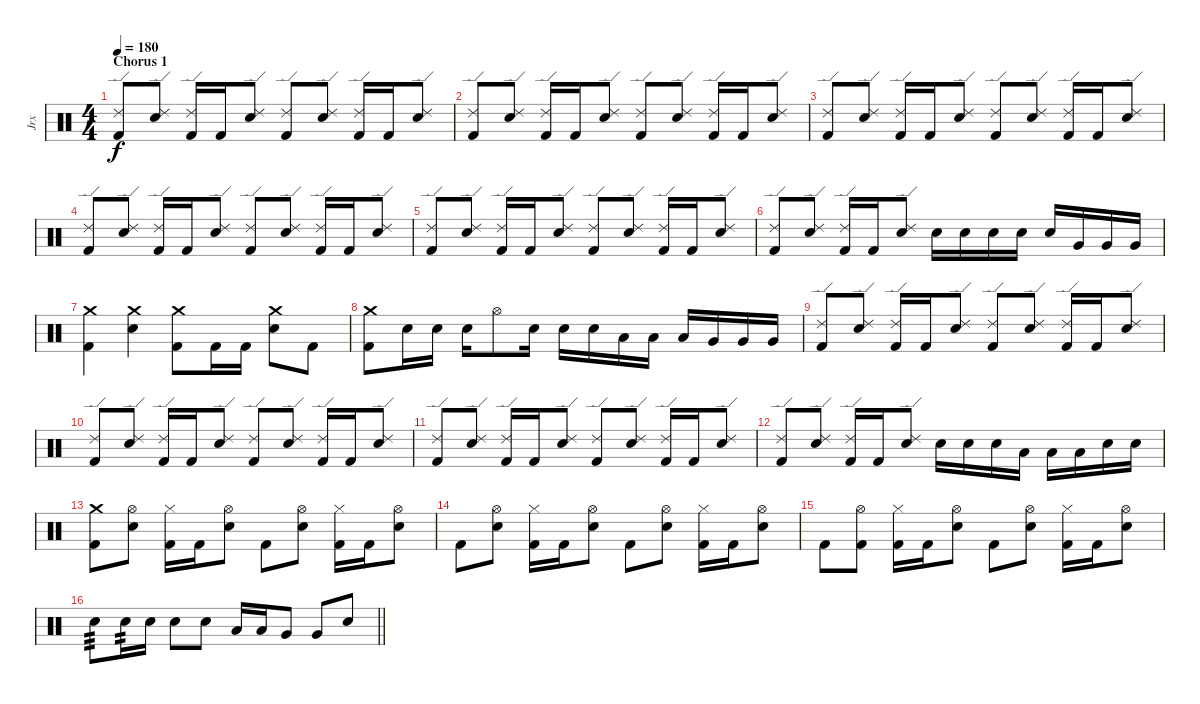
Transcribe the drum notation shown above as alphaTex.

\track ("Jrx" "Jrx") {instrument percussion}
\staff {score}
\articulation defaults
\ts (4 4)
\section ("" "Chorus 1")
\tempo 180
\clef neutral
\ks c
("Kick (hit) 2" "Ride (edge) 2").8{dy f} ("Electric Snare (hit)" "Ride (edge) 2").8 ("Kick (hit) 2" "Ride (edge) 2").16 "Kick (hit) 2".16 ("Electric Snare (hit)" "Ride (edge) 2").8 ("Kick (hit) 2" "Ride (edge) 2").8 ("Electric Snare (hit)" "Ride (edge) 2").8 ("Kick (hit) 2" "Ride (edge) 2").16 "Kick (hit) 2".16 ("Electric Snare (hit)" "Ride (edge) 2").8 |
("Kick (hit) 2" "Ride (edge) 2").8 ("Electric Snare (hit)" "Ride (edge) 2").8 ("Kick (hit) 2" "Ride (edge) 2").16 "Kick (hit) 2".16 ("Electric Snare (hit)" "Ride (edge) 2").8 ("Kick (hit) 2" "Ride (edge) 2").8 ("Electric Snare (hit)" "Ride (edge) 2").8 ("Kick (hit) 2" "Ride (edge) 2").16 "Kick (hit) 2".16 ("Electric Snare (hit)" "Ride (edge) 2").8 |
("Kick (hit) 2" "Ride (edge) 2").8 ("Electric Snare (hit)" "Ride (edge) 2").8 ("Kick (hit) 2" "Ride (edge) 2").16 "Kick (hit) 2".16 ("Electric Snare (hit)" "Ride (edge) 2").8 ("Kick (hit) 2" "Ride (edge) 2").8 ("Electric Snare (hit)" "Ride (edge) 2").8 ("Kick (hit) 2" "Ride (edge) 2").16 "Kick (hit) 2".16 ("Electric Snare (hit)" "Ride (edge) 2").8 |
("Kick (hit) 2" "Ride (edge) 2").8 ("Electric Snare (hit)" "Ride (edge) 2").8 ("Kick (hit) 2" "Ride (edge) 2").16 "Kick (hit) 2".16 ("Electric Snare (hit)" "Ride (edge) 2").8 ("Kick (hit) 2" "Ride (edge) 2").8 ("Electric Snare (hit)" "Ride (edge) 2").8 ("Kick (hit) 2" "Ride (edge) 2").16 "Kick (hit) 2".16 ("Electric Snare (hit)" "Ride (edge) 2").8 |
("Kick (hit) 2" "Ride (edge) 2").8 ("Electric Snare (hit)" "Ride (edge) 2").8 ("Kick (hit) 2" "Ride (edge) 2").16 "Kick (hit) 2".16 ("Electric Snare (hit)" "Ride (edge) 2").8 ("Kick (hit) 2" "Ride (edge) 2").8 ("Electric Snare (hit)" "Ride (edge) 2").8 ("Kick (hit) 2" "Ride (edge) 2").16 "Kick (hit) 2".16 ("Electric Snare (hit)" "Ride (edge) 2").8 |
("Kick (hit) 2" "Ride (edge) 2").8 ("Electric Snare (hit)" "Ride (edge) 2").8 ("Kick (hit) 2" "Ride (edge) 2").16 "Kick (hit) 2".16 ("Electric Snare (hit)" "Ride (edge) 2").8 "Electric Snare (hit)".16 "Electric Snare (hit)".16 "Electric Snare (hit)".16 "Electric Snare (hit)".16 "Electric Snare (hit)".16 "Very Low Tom (hit)".16 "Very Low Tom (hit)".16 "Very Low Tom (hit)".16 |
("Kick (hit) 2" "Crash medium (hit)").4 ("Electric Snare (hit)" "Crash medium (hit)").4 ("Kick (hit) 2" "Crash medium (hit)").8 "Kick (hit) 2".16 "Kick (hit) 2".16 ("Electric Snare (hit)" "Crash medium (hit)").8 "Kick (hit) 2".8 |
("Kick (hit) 2" "Crash medium (hit)").8 "Electric Snare (hit)".16 "Electric Snare (hit)".16 "Electric Snare (hit)".16 "Hi-Hat (open)".8 "Electric Snare (hit)".16 "Electric Snare (hit)".16 "Electric Snare (hit)".16 "Low Tom (hit)".16 "Low Tom (hit)".16 "Low Tom (hit)".16 "Very Low Tom (hit)".16 "Very Low Tom (hit)".16 "Very Low Tom (hit)".16 |
("Kick (hit) 2" "Ride (edge) 2").8 ("Electric Snare (hit)" "Ride (edge) 2").8 ("Kick (hit) 2" "Ride (edge) 2").16 "Kick (hit) 2".16 ("Electric Snare (hit)" "Ride (edge) 2").8 ("Kick (hit) 2" "Ride (edge) 2").8 ("Electric Snare (hit)" "Ride (edge) 2").8 ("Kick (hit) 2" "Ride (edge) 2").16 "Kick (hit) 2".16 ("Electric Snare (hit)" "Ride (edge) 2").8 |
("Kick (hit) 2" "Ride (edge) 2").8 ("Electric Snare (hit)" "Ride (edge) 2").8 ("Kick (hit) 2" "Ride (edge) 2").16 "Kick (hit) 2".16 ("Electric Snare (hit)" "Ride (edge) 2").8 ("Kick (hit) 2" "Ride (edge) 2").8 ("Electric Snare (hit)" "Ride (edge) 2").8 ("Kick (hit) 2" "Ride (edge) 2").16 "Kick (hit) 2".16 ("Electric Snare (hit)" "Ride (edge) 2").8 |
("Kick (hit) 2" "Ride (edge) 2").8 ("Electric Snare (hit)" "Ride (edge) 2").8 ("Kick (hit) 2" "Ride (edge) 2").16 "Kick (hit) 2".16 ("Electric Snare (hit)" "Ride (edge) 2").8 ("Kick (hit) 2" "Ride (edge) 2").8 ("Electric Snare (hit)" "Ride (edge) 2").8 ("Kick (hit) 2" "Ride (edge) 2").16 "Kick (hit) 2".16 ("Electric Snare (hit)" "Ride (edge) 2").8 |
("Kick (hit) 2" "Ride (edge) 2").8 ("Electric Snare (hit)" "Ride (edge) 2").8 ("Kick (hit) 2" "Ride (edge) 2").16 "Kick (hit) 2".16 ("Electric Snare (hit)" "Ride (edge) 2").8 "Electric Snare (hit)".16 "Electric Snare (hit)".16 "Electric Snare (hit)".16 "Low Tom (hit)".16 "Low Tom (hit)".16 "Low Tom (hit)".16 "Electric Snare (hit)".16 "Electric Snare (hit)".16 |
("Kick (hit) 2" "Crash medium (hit)").8 ("Electric Snare (hit)" "Hi-Hat (open)").8 ("Kick (hit) 2" "Hi-Hat (closed)").16 "Kick (hit) 2".16 ("Snare (hit) 2" "Hi-Hat (open)").8 "Kick (hit) 2".8 ("Electric Snare (hit)" "Hi-Hat (open)").8 ("Kick (hit) 2" "Hi-Hat (closed)").16 "Kick (hit) 2".16 ("Snare (hit) 2" "Hi-Hat (open)").8 |
"Kick (hit) 2".8 ("Electric Snare (hit)" "Hi-Hat (open)").8 ("Kick (hit) 2" "Hi-Hat (closed)").16 "Kick (hit) 2".16 ("Snare (hit) 2" "Hi-Hat (open)").8 "Kick (hit) 2".8 ("Electric Snare (hit)" "Hi-Hat (open)").8 ("Kick (hit) 2" "Hi-Hat (closed)").16 "Kick (hit) 2".16 ("Snare (hit) 2" "Hi-Hat (open)").8 |
"Kick (hit) 2".8 ("Kick (hit) 2" "Hi-Hat (open)").8 ("Kick (hit) 2" "Hi-Hat (closed)").16 "Kick (hit) 2".16 ("Snare (hit) 2" "Hi-Hat (open)").8 "Kick (hit) 2".8 ("Electric Snare (hit)" "Hi-Hat (open)").8 ("Kick (hit) 2" "Hi-Hat (closed)").16 "Kick (hit) 2".16 ("Snare (hit) 2" "Hi-Hat (open)").8 |
\barLineRight lightlight "Electric Snare (hit)".8{tp 3} "Electric Snare (hit)".16{tp 2} "Electric Snare (hit)".16 "Electric Snare (hit)".8 "Electric Snare (hit)".8 "Low Tom (hit)".16 "Low Tom (hit)".16 "Very Low Tom (hit)".8 "Very Low Tom (hit)".8 "Electric Snare (hit)".8
